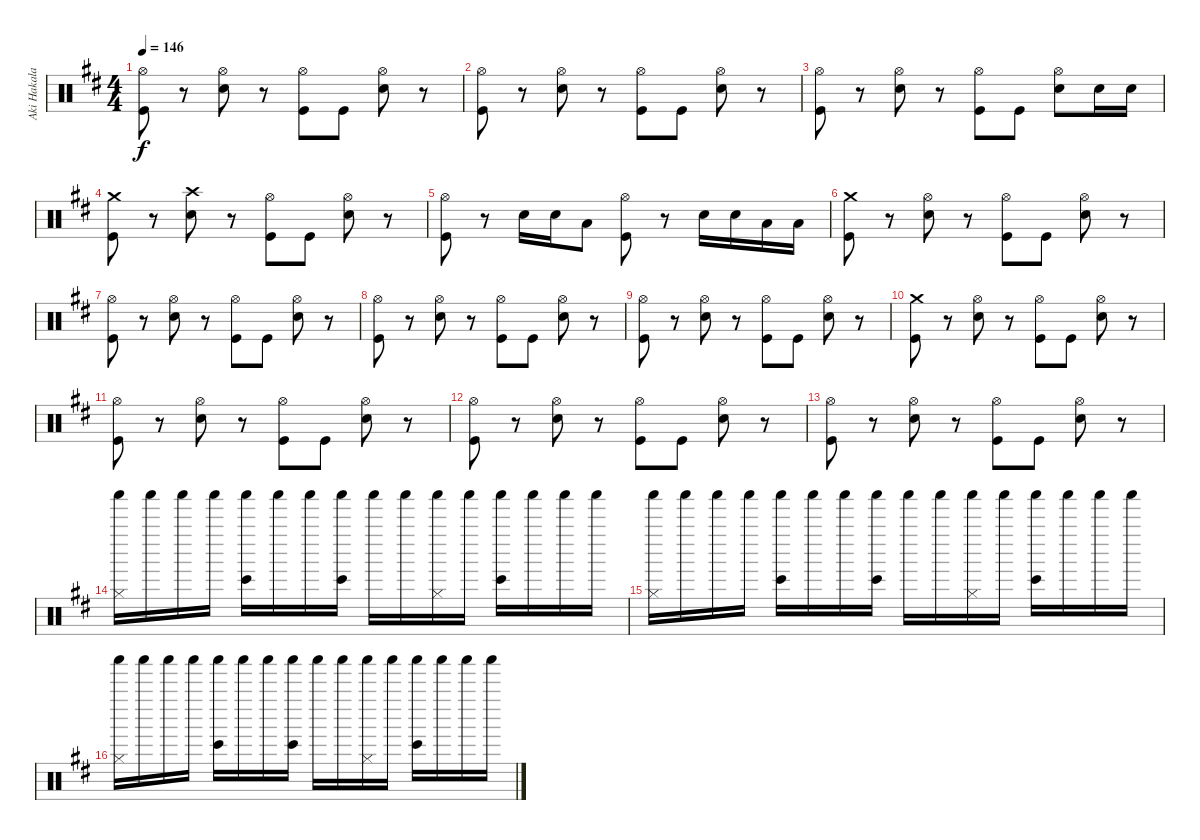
\track ("Aki Hakala" "Aki Hakala") {instrument percussion}
\staff {score}
\articulation defaults
\ts (4 4)
\tempo 146
\clef neutral
\ks d
("Hi-Hat (open)" "Kick (hit)").8{dy f} r.8 ("Hi-Hat (open)" "Electric Snare (hit)").8 r.8 ("Hi-Hat (open)" "Kick (hit)").8 "Kick (hit)".8 ("Hi-Hat (open)" "Electric Snare (hit)").8 r.8 |
("Hi-Hat (open)" "Kick (hit)").8 r.8 ("Hi-Hat (open)" "Electric Snare (hit)").8 r.8 ("Hi-Hat (open)" "Kick (hit)").8 "Kick (hit)".8 ("Hi-Hat (open)" "Electric Snare (hit)").8 r.8 |
("Hi-Hat (open)" "Kick (hit)").8 r.8 ("Hi-Hat (open)" "Electric Snare (hit)").8 r.8 ("Hi-Hat (open)" "Kick (hit)").8 "Kick (hit)".8 ("Hi-Hat (open)" "Electric Snare (hit)").8 "Electric Snare (hit)".16 "Electric Snare (hit)".16 |
("Crash medium (hit)" "Kick (hit)").8 r.8 ("Crash high (hit)" "Electric Snare (hit)").8 r.8 ("Hi-Hat (open)" "Kick (hit)").8 "Kick (hit)".8 ("Hi-Hat (open)" "Electric Snare (hit)").8 r.8 |
("Hi-Hat (open)" "Kick (hit)").8 r.8 "Electric Snare (hit)".16 "Electric Snare (hit)".16 "Low Tom (hit)".8 ("Hi-Hat (open)" "Kick (hit)").8 r.8 "Electric Snare (hit)".16 "Electric Snare (hit)".16 "Low Tom (hit)".16 "Low Tom (hit)".16 |
("Crash medium (hit)" "Kick (hit)").8 r.8 ("Hi-Hat (open)" "Electric Snare (hit)").8 r.8 ("Hi-Hat (open)" "Kick (hit)").8 "Kick (hit)".8 ("Hi-Hat (open)" "Electric Snare (hit)").8 r.8 |
("Hi-Hat (open)" "Kick (hit)").8 r.8 ("Hi-Hat (open)" "Electric Snare (hit)").8 r.8 ("Hi-Hat (open)" "Kick (hit)").8 "Kick (hit)".8 ("Hi-Hat (open)" "Electric Snare (hit)").8 r.8 |
("Hi-Hat (open)" "Kick (hit)").8 r.8 ("Hi-Hat (open)" "Electric Snare (hit)").8 r.8 ("Hi-Hat (open)" "Kick (hit)").8 "Kick (hit)".8 ("Hi-Hat (open)" "Electric Snare (hit)").8 r.8 |
("Hi-Hat (open)" "Kick (hit)").8 r.8 ("Hi-Hat (open)" "Electric Snare (hit)").8 r.8 ("Hi-Hat (open)" "Kick (hit)").8 "Kick (hit)".8 ("Hi-Hat (open)" "Electric Snare (hit)").8 r.8 |
("Crash medium (hit)" "Kick (hit)").8 r.8 ("Hi-Hat (open)" "Electric Snare (hit)").8 r.8 ("Hi-Hat (open)" "Kick (hit)").8 "Kick (hit)".8 ("Hi-Hat (open)" "Electric Snare (hit)").8 r.8 |
("Hi-Hat (open)" "Kick (hit)").8 r.8 ("Hi-Hat (open)" "Electric Snare (hit)").8 r.8 ("Hi-Hat (open)" "Kick (hit)").8 "Kick (hit)".8 ("Hi-Hat (open)" "Electric Snare (hit)").8 r.8 |
("Hi-Hat (open)" "Kick (hit)").8 r.8 ("Hi-Hat (open)" "Electric Snare (hit)").8 r.8 ("Hi-Hat (open)" "Kick (hit)").8 "Kick (hit)".8 ("Hi-Hat (open)" "Electric Snare (hit)").8 r.8 |
("Hi-Hat (open)" "Kick (hit)").8 r.8 ("Hi-Hat (open)" "Electric Snare (hit)").8 r.8 ("Hi-Hat (open)" "Kick (hit)").8 "Kick (hit)".8 ("Hi-Hat (open)" "Electric Snare (hit)").8 r.8 |
("Shaker (hit)" "Hi-Hat (closed)").16 "Shaker (hit)".16 "Shaker (hit)".16 "Shaker (hit)".16 ("Shaker (hit)" "Bongo High (hit)").16 "Shaker (hit)".16 "Shaker (hit)".16 ("Shaker (hit)" "Bongo High (hit)").16 "Shaker (hit)".16 "Shaker (hit)".16 ("Shaker (hit)" "Hi-Hat (closed)").16 "Shaker (hit)".16 ("Shaker (hit)" "Bongo High (hit)").16 "Shaker (hit)".16 "Shaker (hit)".16 "Shaker (hit)".16 |
("Shaker (hit)" "Hi-Hat (closed)").16 "Shaker (hit)".16 "Shaker (hit)".16 "Shaker (hit)".16 ("Shaker (hit)" "Bongo High (hit)").16 "Shaker (hit)".16 "Shaker (hit)".16 ("Shaker (hit)" "Bongo High (hit)").16 "Shaker (hit)".16 "Shaker (hit)".16 ("Shaker (hit)" "Hi-Hat (closed)").16 "Shaker (hit)".16 ("Shaker (hit)" "Bongo High (hit)").16 "Shaker (hit)".16 "Shaker (hit)".16 "Shaker (hit)".16 |
("Shaker (hit)" "Hi-Hat (closed)").16 "Shaker (hit)".16 "Shaker (hit)".16 "Shaker (hit)".16 ("Shaker (hit)" "Bongo High (hit)").16 "Shaker (hit)".16 "Shaker (hit)".16 ("Shaker (hit)" "Bongo High (hit)").16 "Shaker (hit)".16 "Shaker (hit)".16 ("Shaker (hit)" "Hi-Hat (closed)").16 "Shaker (hit)".16 ("Shaker (hit)" "Bongo High (hit)").16 "Shaker (hit)".16 "Shaker (hit)".16 "Shaker (hit)".16
